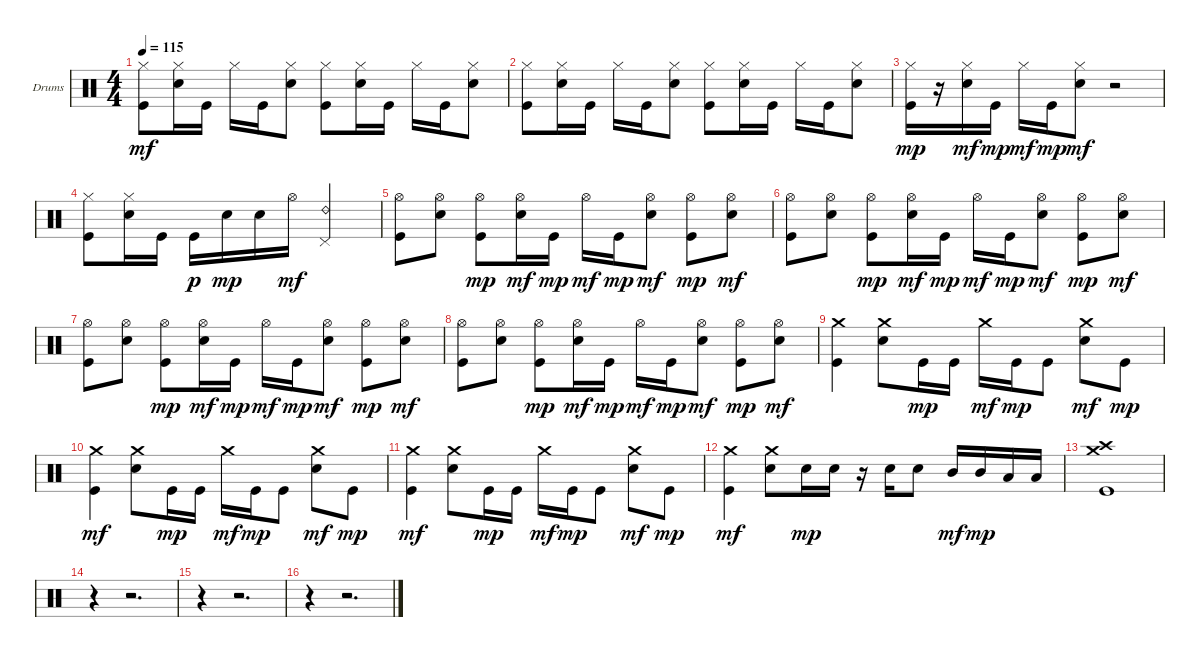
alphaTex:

\bracketExtendMode groupsimilarinstruments
\firstSystemTrackNameOrientation horizontal
\otherSystemsTrackNameOrientation horizontal
\track ("Drumkit" "Drums") {instrument percussion}
\staff {score}
\articulation defaults
\ts (4 4)
\tempo 115
\clef neutral
\ks c
("Hi-Hat (closed)" "Kick (hit)").8{dy mf} ("Hi-Hat (closed)" "Snare (hit) 2").16 "Kick (hit)".16 "Hi-Hat (closed)".16 "Kick (hit)".16 ("Hi-Hat (closed)" "Snare (hit) 2").8 ("Hi-Hat (closed)" "Kick (hit)").8 ("Hi-Hat (closed)" "Snare (hit) 2").16 "Kick (hit)".16 "Hi-Hat (closed)".16 "Kick (hit)".16 ("Hi-Hat (closed)" "Snare (hit) 2").8 |
("Hi-Hat (closed)" "Kick (hit)").8 ("Hi-Hat (closed)" "Snare (hit) 2").16 "Kick (hit)".16 "Hi-Hat (closed)".16 "Kick (hit)".16 ("Hi-Hat (closed)" "Snare (hit) 2").8 ("Hi-Hat (closed)" "Kick (hit)").8 ("Hi-Hat (closed)" "Snare (hit) 2").16 "Kick (hit)".16 "Hi-Hat (closed)".16 "Kick (hit)".16 ("Hi-Hat (closed)" "Snare (hit) 2").8 |
("Hi-Hat (closed)" "Kick (hit)").16{dy mp} r.16 ("Hi-Hat (closed)" "Snare (hit) 2").16{dy mf} "Kick (hit)".16{dy mp} "Hi-Hat (closed)".16{dy mf} "Kick (hit)".16{dy mp} ("Hi-Hat (closed)" "Snare (hit) 2").8{dy mf} r.2 |
("Hi-Hat (closed)" "Kick (hit)").8 ("Hi-Hat (closed)" "Snare (hit) 2").16 "Kick (hit)".16 "Kick (hit)".16{dy p} "Snare (hit) 2".16{dy mp} "Snare (hit) 2".16 "Hi-Hat (open)".16{dy mf} ("Ride (bell) 2" "Pedal Hi-Hat (hit)").2 |
("Hi-Hat (open)" "Kick (hit)").8 ("Hi-Hat (open)" "Snare (hit) 2").8 ("Kick (hit)" "Hi-Hat (open)").8{dy mp} ("Hi-Hat (open)" "Snare (hit) 2").16{dy mf} "Kick (hit)".16{dy mp} "Hi-Hat (open)".16{dy mf} "Kick (hit)".16{dy mp} ("Hi-Hat (open)" "Snare (hit) 2").8{dy mf} ("Hi-Hat (open)" "Kick (hit)").8{dy mp} ("Hi-Hat (open)" "Snare (hit) 2").8{dy mf} |
("Hi-Hat (open)" "Kick (hit)").8 ("Hi-Hat (open)" "Snare (hit) 2").8 ("Kick (hit)" "Hi-Hat (open)").8{dy mp} ("Hi-Hat (open)" "Snare (hit) 2").16{dy mf} "Kick (hit)".16{dy mp} "Hi-Hat (open)".16{dy mf} "Kick (hit)".16{dy mp} ("Hi-Hat (open)" "Snare (hit) 2").8{dy mf} ("Hi-Hat (open)" "Kick (hit)").8{dy mp} ("Hi-Hat (open)" "Snare (hit) 2").8{dy mf} |
("Hi-Hat (open)" "Kick (hit)").8 ("Hi-Hat (open)" "Snare (hit) 2").8 ("Kick (hit)" "Hi-Hat (open)").8{dy mp} ("Hi-Hat (open)" "Snare (hit) 2").16{dy mf} "Kick (hit)".16{dy mp} "Hi-Hat (open)".16{dy mf} "Kick (hit)".16{dy mp} ("Hi-Hat (open)" "Snare (hit) 2").8{dy mf} ("Hi-Hat (open)" "Kick (hit)").8{dy mp} ("Hi-Hat (open)" "Snare (hit) 2").8{dy mf} |
("Hi-Hat (open)" "Kick (hit)").8 ("Hi-Hat (open)" "Snare (hit) 2").8 ("Kick (hit)" "Hi-Hat (open)").8{dy mp} ("Hi-Hat (open)" "Snare (hit) 2").16{dy mf} "Kick (hit)".16{dy mp} "Hi-Hat (open)".16{dy mf} "Kick (hit)".16{dy mp} ("Hi-Hat (open)" "Snare (hit) 2").8{dy mf} ("Hi-Hat (open)" "Kick (hit)").8{dy mp} ("Hi-Hat (open)" "Snare (hit) 2").8{dy mf} |
("Crash medium (hit)" "Kick (hit)").4 ("Crash medium (hit)" "Snare (hit) 2").8 "Kick (hit)".16{dy mp} "Kick (hit)".16 "Crash medium (hit)".16{dy mf} "Kick (hit)".16{dy mp} "Kick (hit)".8 ("Crash medium (hit)" "Snare (hit) 2").8{dy mf} "Kick (hit)".8{dy mp} |
("Crash medium (hit)" "Kick (hit)").4{dy mf} ("Crash medium (hit)" "Snare (hit) 2").8 "Kick (hit)".16{dy mp} "Kick (hit)".16 "Crash medium (hit)".16{dy mf} "Kick (hit)".16{dy mp} "Kick (hit)".8 ("Crash medium (hit)" "Snare (hit) 2").8{dy mf} "Kick (hit)".8{dy mp} |
("Crash medium (hit)" "Kick (hit)").4{dy mf} ("Crash medium (hit)" "Snare (hit) 2").8 "Kick (hit)".16{dy mp} "Kick (hit)".16 "Crash medium (hit)".16{dy mf} "Kick (hit)".16{dy mp} "Kick (hit)".8 ("Crash medium (hit)" "Snare (hit) 2").8{dy mf} "Kick (hit)".8{dy mp} |
("Crash medium (hit)" "Kick (hit)").4{dy mf} ("Crash medium (hit)" "Snare (hit) 2").8 "Snare (hit) 2".16{dy mp} "Snare (hit) 2".16 r.16 "Snare (hit) 2".16 "Snare (hit) 2".8 "Mid Tom (hit)".16{dy mf} "Mid Tom (hit)".16{dy mp} "Low Tom (hit)".16 "Low Tom (hit)".16 |
("Crash medium (hit)" "Crash high (hit)" "Kick (hit)").1 |
r.4 r.2{d} |
r.4 r.2{d} |
r.4 r.2{d}
